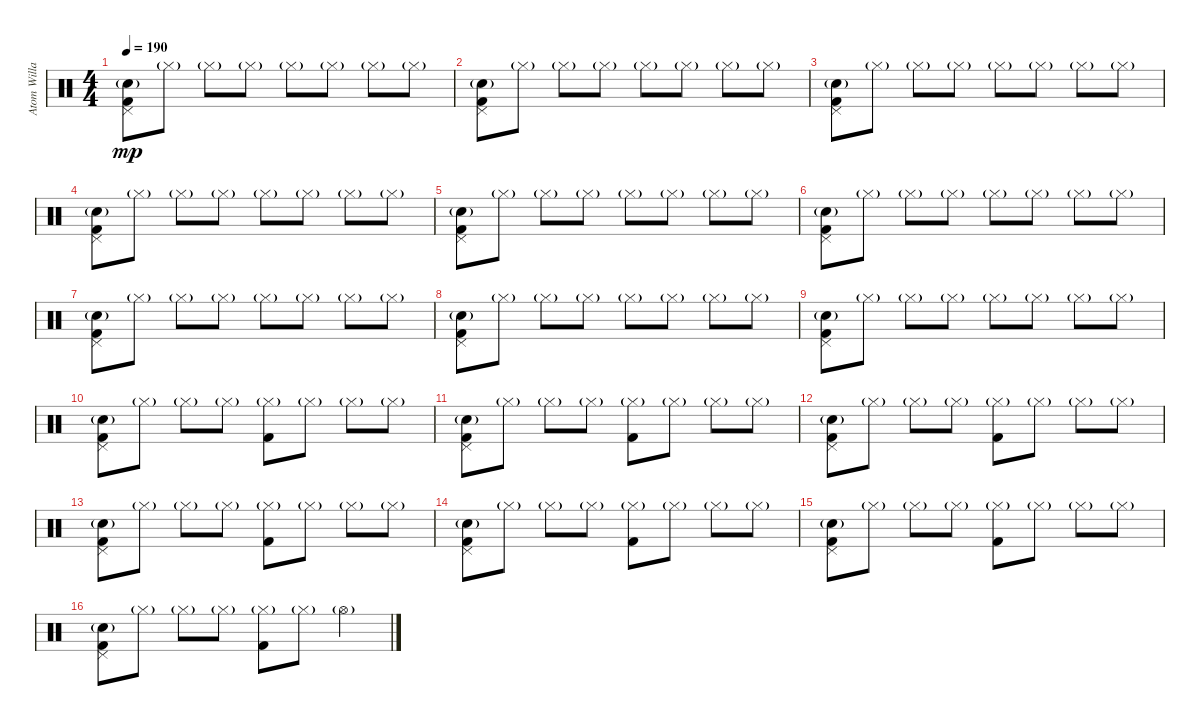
\track ("Atom Willard" "Atom Willa") {instrument percussion}
\staff {score}
\articulation defaults
\ts (4 4)
\tempo 190
\clef neutral
\ks c
("Hand Clap (hit)"{g} "Pedal Hi-Hat (hit)" "Kick (hit) 2").8{dy mp} "Hi-Hat (closed)"{g}.8 "Hi-Hat (closed)"{g}.8 "Hi-Hat (closed)"{g}.8 "Hi-Hat (closed)"{g}.8 "Hi-Hat (closed)"{g}.8 "Hi-Hat (closed)"{g}.8 "Hi-Hat (closed)"{g}.8 |
("Hand Clap (hit)"{g} "Pedal Hi-Hat (hit)" "Kick (hit) 2").8 "Hi-Hat (closed)"{g}.8 "Hi-Hat (closed)"{g}.8 "Hi-Hat (closed)"{g}.8 "Hi-Hat (closed)"{g}.8 "Hi-Hat (closed)"{g}.8 "Hi-Hat (closed)"{g}.8 "Hi-Hat (closed)"{g}.8 |
("Hand Clap (hit)"{g} "Pedal Hi-Hat (hit)" "Kick (hit) 2").8 "Hi-Hat (closed)"{g}.8 "Hi-Hat (closed)"{g}.8 "Hi-Hat (closed)"{g}.8 "Hi-Hat (closed)"{g}.8 "Hi-Hat (closed)"{g}.8 "Hi-Hat (closed)"{g}.8 "Hi-Hat (closed)"{g}.8 |
("Hand Clap (hit)"{g} "Pedal Hi-Hat (hit)" "Kick (hit) 2").8 "Hi-Hat (closed)"{g}.8 "Hi-Hat (closed)"{g}.8 "Hi-Hat (closed)"{g}.8 "Hi-Hat (closed)"{g}.8 "Hi-Hat (closed)"{g}.8 "Hi-Hat (closed)"{g}.8 "Hi-Hat (closed)"{g}.8 |
("Hand Clap (hit)"{g} "Pedal Hi-Hat (hit)" "Kick (hit) 2").8 "Hi-Hat (closed)"{g}.8 "Hi-Hat (closed)"{g}.8 "Hi-Hat (closed)"{g}.8 "Hi-Hat (closed)"{g}.8 "Hi-Hat (closed)"{g}.8 "Hi-Hat (closed)"{g}.8 "Hi-Hat (closed)"{g}.8 |
("Hand Clap (hit)"{g} "Pedal Hi-Hat (hit)" "Kick (hit) 2").8 "Hi-Hat (closed)"{g}.8 "Hi-Hat (closed)"{g}.8 "Hi-Hat (closed)"{g}.8 "Hi-Hat (closed)"{g}.8 "Hi-Hat (closed)"{g}.8 "Hi-Hat (closed)"{g}.8 "Hi-Hat (closed)"{g}.8 |
("Hand Clap (hit)"{g} "Pedal Hi-Hat (hit)" "Kick (hit) 2").8 "Hi-Hat (closed)"{g}.8 "Hi-Hat (closed)"{g}.8 "Hi-Hat (closed)"{g}.8 "Hi-Hat (closed)"{g}.8 "Hi-Hat (closed)"{g}.8 "Hi-Hat (closed)"{g}.8 "Hi-Hat (closed)"{g}.8 |
("Hand Clap (hit)"{g} "Pedal Hi-Hat (hit)" "Kick (hit) 2").8 "Hi-Hat (closed)"{g}.8 "Hi-Hat (closed)"{g}.8 "Hi-Hat (closed)"{g}.8 "Hi-Hat (closed)"{g}.8 "Hi-Hat (closed)"{g}.8 "Hi-Hat (closed)"{g}.8 "Hi-Hat (closed)"{g}.8 |
("Hand Clap (hit)"{g} "Pedal Hi-Hat (hit)" "Kick (hit) 2").8 "Hi-Hat (closed)"{g}.8 "Hi-Hat (closed)"{g}.8 "Hi-Hat (closed)"{g}.8 "Hi-Hat (closed)"{g}.8 "Hi-Hat (closed)"{g}.8 "Hi-Hat (closed)"{g}.8 "Hi-Hat (closed)"{g}.8 |
("Hand Clap (hit)"{g} "Pedal Hi-Hat (hit)" "Kick (hit) 2").8 "Hi-Hat (closed)"{g}.8 "Hi-Hat (closed)"{g}.8 "Hi-Hat (closed)"{g}.8 ("Hi-Hat (closed)"{g} "Kick (hit) 2").8 "Hi-Hat (closed)"{g}.8 "Hi-Hat (closed)"{g}.8 "Hi-Hat (closed)"{g}.8 |
("Hand Clap (hit)"{g} "Pedal Hi-Hat (hit)" "Kick (hit) 2").8 "Hi-Hat (closed)"{g}.8 "Hi-Hat (closed)"{g}.8 "Hi-Hat (closed)"{g}.8 ("Hi-Hat (closed)"{g} "Kick (hit) 2").8 "Hi-Hat (closed)"{g}.8 "Hi-Hat (closed)"{g}.8 "Hi-Hat (closed)"{g}.8 |
("Hand Clap (hit)"{g} "Pedal Hi-Hat (hit)" "Kick (hit) 2").8 "Hi-Hat (closed)"{g}.8 "Hi-Hat (closed)"{g}.8 "Hi-Hat (closed)"{g}.8 ("Hi-Hat (closed)"{g} "Kick (hit) 2").8 "Hi-Hat (closed)"{g}.8 "Hi-Hat (closed)"{g}.8 "Hi-Hat (closed)"{g}.8 |
("Hand Clap (hit)"{g} "Pedal Hi-Hat (hit)" "Kick (hit) 2").8 "Hi-Hat (closed)"{g}.8 "Hi-Hat (closed)"{g}.8 "Hi-Hat (closed)"{g}.8 ("Hi-Hat (closed)"{g} "Kick (hit) 2").8 "Hi-Hat (closed)"{g}.8 "Hi-Hat (closed)"{g}.8 "Hi-Hat (closed)"{g}.8 |
("Hand Clap (hit)"{g} "Pedal Hi-Hat (hit)" "Kick (hit) 2").8 "Hi-Hat (closed)"{g}.8 "Hi-Hat (closed)"{g}.8 "Hi-Hat (closed)"{g}.8 ("Hi-Hat (closed)"{g} "Kick (hit) 2").8 "Hi-Hat (closed)"{g}.8 "Hi-Hat (closed)"{g}.8 "Hi-Hat (closed)"{g}.8 |
("Hand Clap (hit)"{g} "Pedal Hi-Hat (hit)" "Kick (hit) 2").8 "Hi-Hat (closed)"{g}.8 "Hi-Hat (closed)"{g}.8 "Hi-Hat (closed)"{g}.8 ("Hi-Hat (closed)"{g} "Kick (hit) 2").8 "Hi-Hat (closed)"{g}.8 "Hi-Hat (closed)"{g}.8 "Hi-Hat (closed)"{g}.8 |
("Hand Clap (hit)"{g} "Pedal Hi-Hat (hit)" "Kick (hit) 2").8 "Hi-Hat (closed)"{g}.8 "Hi-Hat (closed)"{g}.8 "Hi-Hat (closed)"{g}.8 ("Hi-Hat (closed)"{g} "Kick (hit) 2").8 "Hi-Hat (closed)"{g}.8 "Hi-Hat (open)"{g}.4
